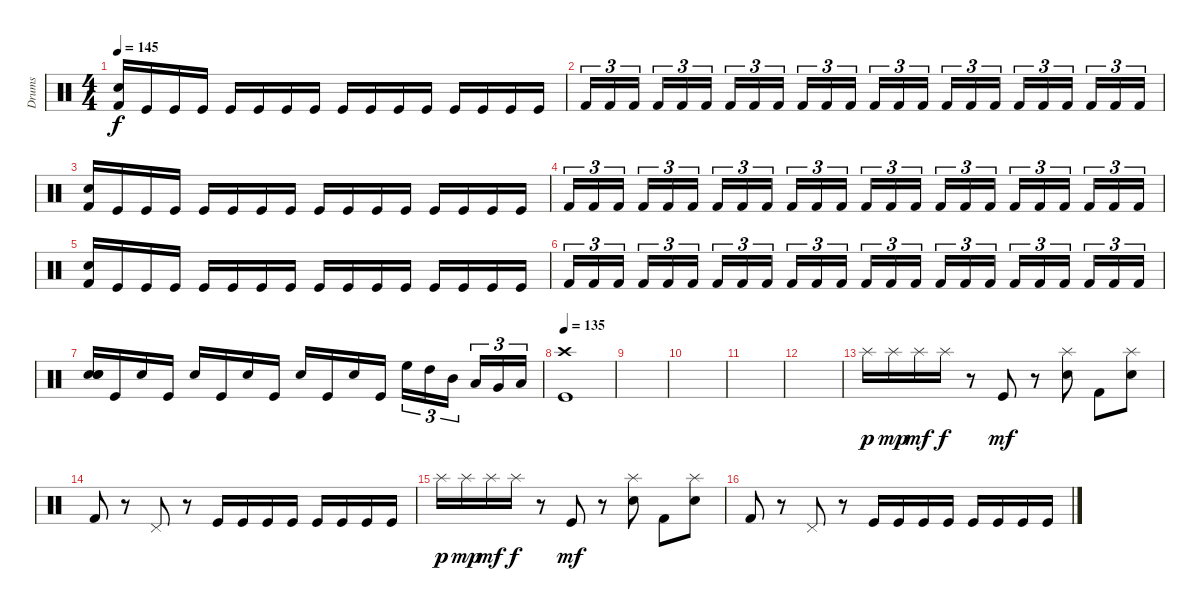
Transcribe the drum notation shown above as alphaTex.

\track ("Drums" "Drums") {instrument percussion}
\staff {score}
\articulation defaults
\ts (4 4)
\tempo 145
\clef neutral
\ks c
("Electric Snare (hit)" "Kick (hit) 2").16{dy f} "Kick (hit)".16 "Kick (hit)".16 "Kick (hit)".16 "Kick (hit)".16 "Kick (hit)".16 "Kick (hit)".16 "Kick (hit)".16 "Kick (hit)".16 "Kick (hit)".16 "Kick (hit)".16 "Kick (hit)".16 "Kick (hit)".16 "Kick (hit)".16 "Kick (hit)".16 "Kick (hit)".16 |
"Kick (hit) 2".16{tu (3 2)} "Kick (hit) 2".16{tu (3 2)} "Kick (hit) 2".16{tu (3 2) beam splitsecondary} "Kick (hit) 2".16{tu (3 2)} "Kick (hit) 2".16{tu (3 2)} "Kick (hit) 2".16{tu (3 2)} "Kick (hit) 2".16{tu (3 2)} "Kick (hit) 2".16{tu (3 2)} "Kick (hit) 2".16{tu (3 2) beam splitsecondary} "Kick (hit) 2".16{tu (3 2)} "Kick (hit) 2".16{tu (3 2)} "Kick (hit) 2".16{tu (3 2)} "Kick (hit) 2".16{tu (3 2)} "Kick (hit) 2".16{tu (3 2)} "Kick (hit) 2".16{tu (3 2) beam splitsecondary} "Kick (hit) 2".16{tu (3 2)} "Kick (hit) 2".16{tu (3 2)} "Kick (hit) 2".16{tu (3 2)} "Kick (hit) 2".16{tu (3 2)} "Kick (hit) 2".16{tu (3 2)} "Kick (hit) 2".16{tu (3 2) beam splitsecondary} "Kick (hit) 2".16{tu (3 2)} "Kick (hit) 2".16{tu (3 2)} "Kick (hit) 2".16{tu (3 2)} |
("Electric Snare (hit)" "Kick (hit) 2").16 "Kick (hit)".16 "Kick (hit)".16 "Kick (hit)".16 "Kick (hit)".16 "Kick (hit)".16 "Kick (hit)".16 "Kick (hit)".16 "Kick (hit)".16 "Kick (hit)".16 "Kick (hit)".16 "Kick (hit)".16 "Kick (hit)".16 "Kick (hit)".16 "Kick (hit)".16 "Kick (hit)".16 |
"Kick (hit) 2".16{tu (3 2)} "Kick (hit) 2".16{tu (3 2)} "Kick (hit) 2".16{tu (3 2) beam splitsecondary} "Kick (hit) 2".16{tu (3 2)} "Kick (hit) 2".16{tu (3 2)} "Kick (hit) 2".16{tu (3 2)} "Kick (hit) 2".16{tu (3 2)} "Kick (hit) 2".16{tu (3 2)} "Kick (hit) 2".16{tu (3 2) beam splitsecondary} "Kick (hit) 2".16{tu (3 2)} "Kick (hit) 2".16{tu (3 2)} "Kick (hit) 2".16{tu (3 2)} "Kick (hit) 2".16{tu (3 2)} "Kick (hit) 2".16{tu (3 2)} "Kick (hit) 2".16{tu (3 2) beam splitsecondary} "Kick (hit) 2".16{tu (3 2)} "Kick (hit) 2".16{tu (3 2)} "Kick (hit) 2".16{tu (3 2)} "Kick (hit) 2".16{tu (3 2)} "Kick (hit) 2".16{tu (3 2)} "Kick (hit) 2".16{tu (3 2) beam splitsecondary} "Kick (hit) 2".16{tu (3 2)} "Kick (hit) 2".16{tu (3 2)} "Kick (hit) 2".16{tu (3 2)} |
("Electric Snare (hit)" "Kick (hit) 2").16 "Kick (hit)".16 "Kick (hit)".16 "Kick (hit)".16 "Kick (hit)".16 "Kick (hit)".16 "Kick (hit)".16 "Kick (hit)".16 "Kick (hit)".16 "Kick (hit)".16 "Kick (hit)".16 "Kick (hit)".16 "Kick (hit)".16 "Kick (hit)".16 "Kick (hit)".16 "Kick (hit)".16 |
"Kick (hit) 2".16{tu (3 2)} "Kick (hit) 2".16{tu (3 2)} "Kick (hit) 2".16{tu (3 2) beam splitsecondary} "Kick (hit) 2".16{tu (3 2)} "Kick (hit) 2".16{tu (3 2)} "Kick (hit) 2".16{tu (3 2)} "Kick (hit) 2".16{tu (3 2)} "Kick (hit) 2".16{tu (3 2)} "Kick (hit) 2".16{tu (3 2) beam splitsecondary} "Kick (hit) 2".16{tu (3 2)} "Kick (hit) 2".16{tu (3 2)} "Kick (hit) 2".16{tu (3 2)} "Kick (hit) 2".16{tu (3 2)} "Kick (hit) 2".16{tu (3 2)} "Kick (hit) 2".16{tu (3 2) beam splitsecondary} "Kick (hit) 2".16{tu (3 2)} "Kick (hit) 2".16{tu (3 2)} "Kick (hit) 2".16{tu (3 2)} "Kick (hit) 2".16{tu (3 2)} "Kick (hit) 2".16{tu (3 2)} "Kick (hit) 2".16{tu (3 2) beam splitsecondary} "Kick (hit) 2".16{tu (3 2)} "Kick (hit) 2".16{tu (3 2)} "Kick (hit) 2".16{tu (3 2)} |
("Electric Snare (hit)" "Electric Snare (hit)" "Electric Snare (hit)").16 "Kick (hit)".16 "Snare (hit) 2".16 "Kick (hit)".16 "Snare (hit) 2".16 "Kick (hit)".16 "Snare (hit) 2".16 "Kick (hit)".16 "Snare (hit) 2".16 "Kick (hit)".16 "Snare (hit) 2".16 "Kick (hit)".16 "High Floor Tom (hit)".16{tu (3 2)} "High Tom (hit)".16{tu (3 2)} "Mid Tom (hit)".16{tu (3 2) beam splitsecondary} "Low Tom (hit)".16{tu (3 2)} "Very Low Tom (hit)".16{tu (3 2)} "Low Floor Tom (hit)".16{tu (3 2)} |
\tempo 135
("Crash high (hit)" "Kick (hit)").1 |
|
|
|
|
"Splash (hit)".16{dy p} "Splash (hit)".16{dy mp} "Splash (hit)".16{dy mf} "Splash (hit)".16{dy f} r.8 "Kick (hit)".8{dy mf} r.8 ("Splash (hit)" "Snare (hit) 2").8 "Kick (hit) 2".8 ("Splash (hit)" "Snare (hit) 2").8 |
"Kick (hit) 2".8 r.8 "Pedal Hi-Hat (hit)".8 r.8 "Kick (hit)".16 "Kick (hit)".16 "Kick (hit)".16 "Kick (hit)".16 "Kick (hit)".16 "Kick (hit)".16 "Kick (hit)".16 "Kick (hit)".16 |
"Splash (hit)".16{dy p} "Splash (hit)".16{dy mp} "Splash (hit)".16{dy mf} "Splash (hit)".16{dy f} r.8 "Kick (hit)".8{dy mf} r.8 ("Splash (hit)" "Snare (hit) 2").8 "Kick (hit) 2".8 ("Splash (hit)" "Snare (hit) 2").8 |
"Kick (hit) 2".8 r.8 "Pedal Hi-Hat (hit)".8 r.8 "Kick (hit)".16 "Kick (hit)".16 "Kick (hit)".16 "Kick (hit)".16 "Kick (hit)".16 "Kick (hit)".16 "Kick (hit)".16 "Kick (hit)".16
